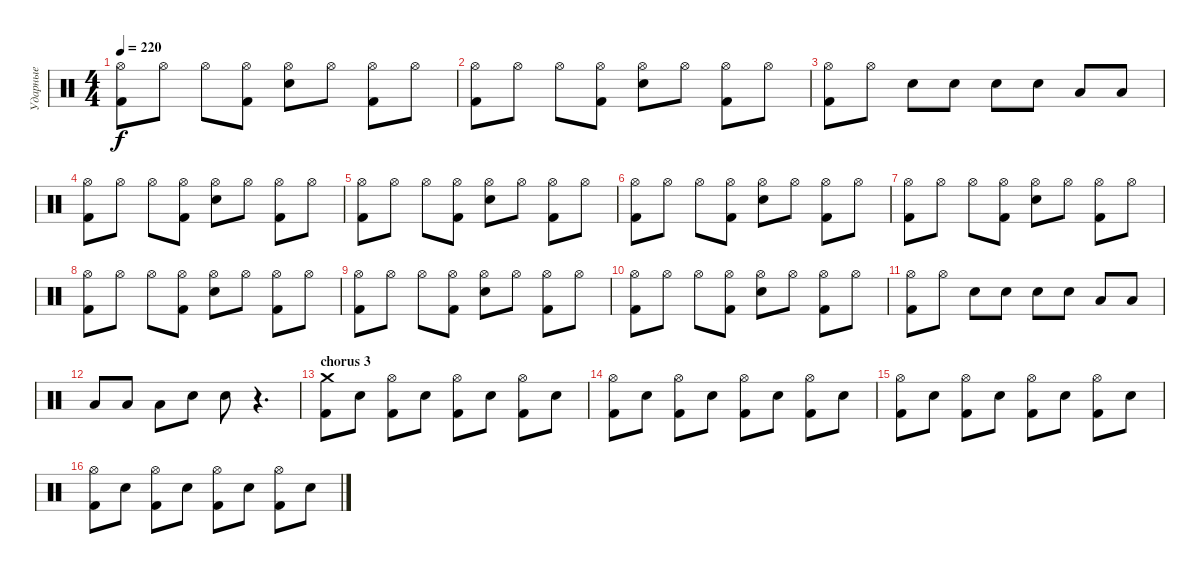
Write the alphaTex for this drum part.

\track ("Ударные" "Ударные") {instrument percussion}
\staff {score}
\articulation defaults
\ts (4 4)
\tempo 220
\clef neutral
\ks c
("Hi-Hat (open)" "Kick (hit) 2").8{dy f} "Hi-Hat (open)".8 "Hi-Hat (open)".8 ("Hi-Hat (open)" "Kick (hit) 2").8 ("Hi-Hat (open)" "Electric Snare (hit)").8 "Hi-Hat (open)".8 ("Hi-Hat (open)" "Kick (hit) 2").8 "Hi-Hat (open)".8 |
("Hi-Hat (open)" "Kick (hit) 2").8 "Hi-Hat (open)".8 "Hi-Hat (open)".8 ("Hi-Hat (open)" "Kick (hit) 2").8 ("Hi-Hat (open)" "Electric Snare (hit)").8 "Hi-Hat (open)".8 ("Hi-Hat (open)" "Kick (hit) 2").8 "Hi-Hat (open)".8 |
("Hi-Hat (open)" "Kick (hit) 2").8 "Hi-Hat (open)".8 "Electric Snare (hit)".8 "Electric Snare (hit)".8 "Electric Snare (hit)".8 "Electric Snare (hit)".8 "Low Tom (hit)".8 "Low Tom (hit)".8 |
("Hi-Hat (open)" "Kick (hit) 2").8 "Hi-Hat (open)".8 "Hi-Hat (open)".8 ("Hi-Hat (open)" "Kick (hit) 2").8 ("Hi-Hat (open)" "Electric Snare (hit)").8 "Hi-Hat (open)".8 ("Hi-Hat (open)" "Kick (hit) 2").8 "Hi-Hat (open)".8 |
("Hi-Hat (open)" "Kick (hit) 2").8 "Hi-Hat (open)".8 "Hi-Hat (open)".8 ("Hi-Hat (open)" "Kick (hit) 2").8 ("Hi-Hat (open)" "Electric Snare (hit)").8 "Hi-Hat (open)".8 ("Hi-Hat (open)" "Kick (hit) 2").8 "Hi-Hat (open)".8 |
("Hi-Hat (open)" "Kick (hit) 2").8 "Hi-Hat (open)".8 "Hi-Hat (open)".8 ("Hi-Hat (open)" "Kick (hit) 2").8 ("Hi-Hat (open)" "Electric Snare (hit)").8 "Hi-Hat (open)".8 ("Hi-Hat (open)" "Kick (hit) 2").8 "Hi-Hat (open)".8 |
("Hi-Hat (open)" "Kick (hit) 2").8 "Hi-Hat (open)".8 "Hi-Hat (open)".8 ("Hi-Hat (open)" "Kick (hit) 2").8 ("Hi-Hat (open)" "Electric Snare (hit)").8 "Hi-Hat (open)".8 ("Hi-Hat (open)" "Kick (hit) 2").8 "Hi-Hat (open)".8 |
("Hi-Hat (open)" "Kick (hit) 2").8 "Hi-Hat (open)".8 "Hi-Hat (open)".8 ("Hi-Hat (open)" "Kick (hit) 2").8 ("Hi-Hat (open)" "Electric Snare (hit)").8 "Hi-Hat (open)".8 ("Hi-Hat (open)" "Kick (hit) 2").8 "Hi-Hat (open)".8 |
("Hi-Hat (open)" "Kick (hit) 2").8 "Hi-Hat (open)".8 "Hi-Hat (open)".8 ("Hi-Hat (open)" "Kick (hit) 2").8 ("Hi-Hat (open)" "Electric Snare (hit)").8 "Hi-Hat (open)".8 ("Hi-Hat (open)" "Kick (hit) 2").8 "Hi-Hat (open)".8 |
("Hi-Hat (open)" "Kick (hit) 2").8 "Hi-Hat (open)".8 "Hi-Hat (open)".8 ("Hi-Hat (open)" "Kick (hit) 2").8 ("Hi-Hat (open)" "Electric Snare (hit)").8 "Hi-Hat (open)".8 ("Hi-Hat (open)" "Kick (hit) 2").8 "Hi-Hat (open)".8 |
("Hi-Hat (open)" "Kick (hit) 2").8 "Hi-Hat (open)".8 "Electric Snare (hit)".8 "Electric Snare (hit)".8 "Electric Snare (hit)".8 "Electric Snare (hit)".8 "Low Tom (hit)".8 "Low Tom (hit)".8 |
"Low Tom (hit)".8 "Low Tom (hit)".8 "Low Tom (hit)".8 "Electric Snare (hit)".8 "Electric Snare (hit)".8 r.4{d} |
\section ("" "chorus 3")
("Crash medium (hit)" "Kick (hit) 2").8 "Electric Snare (hit)".8 ("Hi-Hat (open)" "Kick (hit) 2").8 "Electric Snare (hit)".8 ("Hi-Hat (open)" "Kick (hit) 2").8 "Electric Snare (hit)".8 ("Hi-Hat (open)" "Kick (hit) 2").8 "Electric Snare (hit)".8 |
("Hi-Hat (open)" "Kick (hit) 2").8 "Electric Snare (hit)".8 ("Hi-Hat (open)" "Kick (hit) 2").8 "Electric Snare (hit)".8 ("Hi-Hat (open)" "Kick (hit) 2").8 "Electric Snare (hit)".8 ("Hi-Hat (open)" "Kick (hit) 2").8 "Electric Snare (hit)".8 |
("Hi-Hat (open)" "Kick (hit) 2").8 "Electric Snare (hit)".8 ("Hi-Hat (open)" "Kick (hit) 2").8 "Electric Snare (hit)".8 ("Hi-Hat (open)" "Kick (hit) 2").8 "Electric Snare (hit)".8 ("Hi-Hat (open)" "Kick (hit) 2").8 "Electric Snare (hit)".8 |
("Hi-Hat (open)" "Kick (hit) 2").8 "Electric Snare (hit)".8 ("Hi-Hat (open)" "Kick (hit) 2").8 "Electric Snare (hit)".8 ("Hi-Hat (open)" "Kick (hit) 2").8 "Electric Snare (hit)".8 ("Hi-Hat (open)" "Kick (hit) 2").8 "Electric Snare (hit)".8
